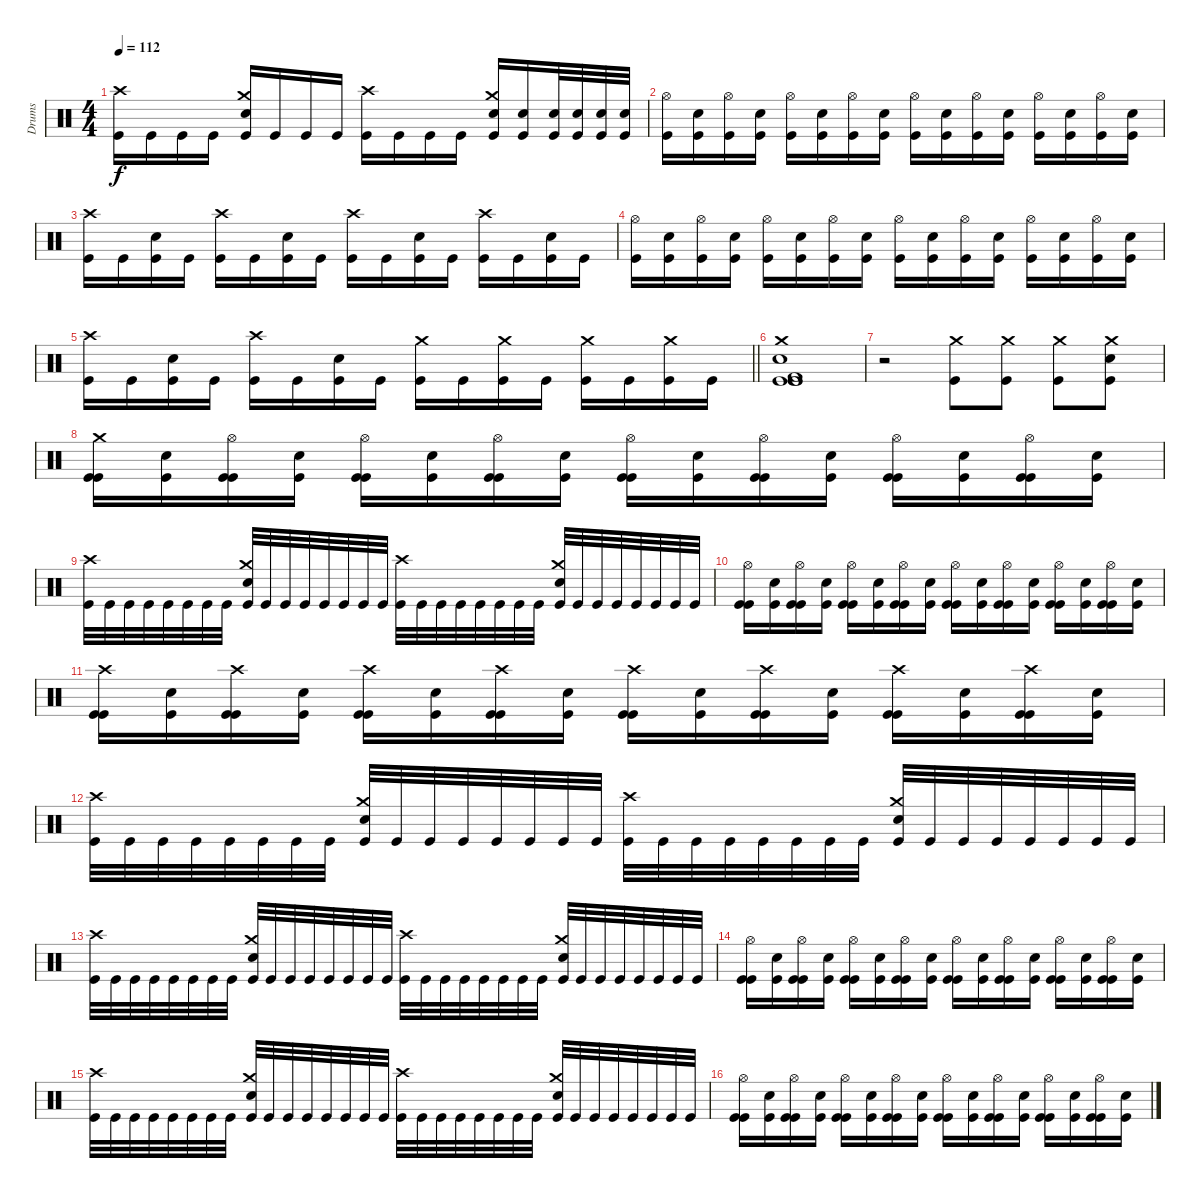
\track ("Drums" "Drums") {instrument percussion}
\staff
\articulation defaults
\ts (4 4)
\tempo 112
\clef neutral
\ks c
("Crash high (hit)" "Kick (hit)").16{dy f} "Kick (hit)".16 "Kick (hit)".16 "Kick (hit)".16 ("Crash medium (hit)" "Electric Snare (hit)" "Kick (hit)").16 "Kick (hit)".16 "Kick (hit)".16 "Kick (hit)".16 ("Crash high (hit)" "Kick (hit)").16 "Kick (hit)".16 "Kick (hit)".16 "Kick (hit)".16 ("Crash medium (hit)" "Electric Snare (hit)" "Kick (hit)").16 ("Electric Snare (hit)" "Kick (hit)").16 ("Electric Snare (hit)" "Kick (hit)").32 ("Electric Snare (hit)" "Kick (hit)").32 ("Electric Snare (hit)" "Kick (hit)").32 ("Electric Snare (hit)" "Kick (hit)").32 |
("Hi-Hat (open)" "Kick (hit)").16 ("Electric Snare (hit)" "Kick (hit)").16 ("Hi-Hat (open)" "Kick (hit)").16 ("Electric Snare (hit)" "Kick (hit)").16 ("Hi-Hat (open)" "Kick (hit)").16 ("Electric Snare (hit)" "Kick (hit)").16 ("Hi-Hat (open)" "Kick (hit)").16 ("Electric Snare (hit)" "Kick (hit)").16 ("Hi-Hat (open)" "Kick (hit)").16 ("Electric Snare (hit)" "Kick (hit)").16 ("Hi-Hat (open)" "Kick (hit)").16 ("Electric Snare (hit)" "Kick (hit)").16 ("Hi-Hat (open)" "Kick (hit)").16 ("Electric Snare (hit)" "Kick (hit)").16 ("Hi-Hat (open)" "Kick (hit)").16 ("Electric Snare (hit)" "Kick (hit)").16 |
("Crash high (hit)" "Kick (hit)").16 "Kick (hit)".16 ("Electric Snare (hit)" "Kick (hit)").16 "Kick (hit)".16 ("Crash high (hit)" "Kick (hit)").16 "Kick (hit)".16 ("Electric Snare (hit)" "Kick (hit)").16 "Kick (hit)".16 ("Crash high (hit)" "Kick (hit)").16 "Kick (hit)".16 ("Electric Snare (hit)" "Kick (hit)").16 "Kick (hit)".16 ("Crash high (hit)" "Kick (hit)").16 "Kick (hit)".16 ("Electric Snare (hit)" "Kick (hit)").16 "Kick (hit)".16 |
("Hi-Hat (open)" "Kick (hit)").16 ("Electric Snare (hit)" "Kick (hit)").16 ("Hi-Hat (open)" "Kick (hit)").16 ("Electric Snare (hit)" "Kick (hit)").16 ("Hi-Hat (open)" "Kick (hit)").16 ("Electric Snare (hit)" "Kick (hit)").16 ("Hi-Hat (open)" "Kick (hit)").16 ("Electric Snare (hit)" "Kick (hit)").16 ("Hi-Hat (open)" "Kick (hit)").16 ("Electric Snare (hit)" "Kick (hit)").16 ("Hi-Hat (open)" "Kick (hit)").16 ("Electric Snare (hit)" "Kick (hit)").16 ("Hi-Hat (open)" "Kick (hit)").16 ("Electric Snare (hit)" "Kick (hit)").16 ("Hi-Hat (open)" "Kick (hit)").16 ("Electric Snare (hit)" "Kick (hit)").16 |
\barLineRight lightlight
("Crash high (hit)" "Kick (hit)").16 "Kick (hit)".16 ("Electric Snare (hit)" "Kick (hit)").16 "Kick (hit)".16 ("Crash high (hit)" "Kick (hit)").16 "Kick (hit)".16 ("Electric Snare (hit)" "Kick (hit)").16 "Kick (hit)".16 ("Crash medium (hit)" "Kick (hit)").16 "Kick (hit)".16 ("Crash medium (hit)" "Kick (hit)").16 "Kick (hit)".16 ("Crash medium (hit)" "Kick (hit)").16 "Kick (hit)".16 ("Crash medium (hit)" "Kick (hit)").16 "Kick (hit)".16 |
\section ("" "")
("Kick (hit)" "Kick (hit)" "Crash medium (hit)" "Kick (hit) 2" "Electric Snare (hit)" "Kick (hit)").1 |
r.2 ("Crash medium (hit)" "Kick (hit)").8 ("Crash medium (hit)" "Kick (hit)").8 ("Crash medium (hit)" "Kick (hit)").8 ("Crash medium (hit)" "Electric Snare (hit)" "Kick (hit)").8 |
("Crash medium (hit)" "Kick (hit)" "Kick (hit)").16 ("Electric Snare (hit)" "Kick (hit)").16 ("Hi-Hat (open)" "Kick (hit)" "Kick (hit)").16 ("Electric Snare (hit)" "Kick (hit)").16 ("Hi-Hat (open)" "Kick (hit)" "Kick (hit)").16 ("Electric Snare (hit)" "Kick (hit)").16 ("Hi-Hat (open)" "Kick (hit)" "Kick (hit)").16 ("Electric Snare (hit)" "Kick (hit)").16 ("Hi-Hat (open)" "Kick (hit)" "Kick (hit)").16 ("Electric Snare (hit)" "Kick (hit)").16 ("Hi-Hat (open)" "Kick (hit)" "Kick (hit)").16 ("Electric Snare (hit)" "Kick (hit)").16 ("Hi-Hat (open)" "Kick (hit)" "Kick (hit)").16 ("Electric Snare (hit)" "Kick (hit)").16 ("Hi-Hat (open)" "Kick (hit)" "Kick (hit)").16 ("Electric Snare (hit)" "Kick (hit)").16 |
("Crash high (hit)" "Kick (hit)").32 "Kick (hit)".32 "Kick (hit)".32 "Kick (hit)".32 "Kick (hit)".32 "Kick (hit)".32 "Kick (hit)".32 "Kick (hit)".32 ("Crash medium (hit)" "Electric Snare (hit)" "Kick (hit)").32 "Kick (hit)".32 "Kick (hit)".32 "Kick (hit)".32 "Kick (hit)".32 "Kick (hit)".32 "Kick (hit)".32 "Kick (hit)".32 ("Crash high (hit)" "Kick (hit)").32 "Kick (hit)".32 "Kick (hit)".32 "Kick (hit)".32 "Kick (hit)".32 "Kick (hit)".32 "Kick (hit)".32 "Kick (hit)".32 ("Crash medium (hit)" "Electric Snare (hit)" "Kick (hit)").32 "Kick (hit)".32 "Kick (hit)".32 "Kick (hit)".32 "Kick (hit)".32 "Kick (hit)".32 "Kick (hit)".32 "Kick (hit)".32 |
("Hi-Hat (open)" "Kick (hit)" "Kick (hit)").16 ("Electric Snare (hit)" "Kick (hit)").16 ("Hi-Hat (open)" "Kick (hit)" "Kick (hit)").16 ("Electric Snare (hit)" "Kick (hit)").16 ("Hi-Hat (open)" "Kick (hit)" "Kick (hit)").16 ("Electric Snare (hit)" "Kick (hit)").16 ("Hi-Hat (open)" "Kick (hit)" "Kick (hit)").16 ("Electric Snare (hit)" "Kick (hit)").16 ("Hi-Hat (open)" "Kick (hit)" "Kick (hit)").16 ("Electric Snare (hit)" "Kick (hit)").16 ("Hi-Hat (open)" "Kick (hit)" "Kick (hit)").16 ("Electric Snare (hit)" "Kick (hit)").16 ("Hi-Hat (open)" "Kick (hit)" "Kick (hit)").16 ("Electric Snare (hit)" "Kick (hit)").16 ("Hi-Hat (open)" "Kick (hit)" "Kick (hit)").16 ("Electric Snare (hit)" "Kick (hit)").16 |
("Crash high (hit)" "Kick (hit)" "Kick (hit)").16 ("Electric Snare (hit)" "Kick (hit)").16 ("Crash high (hit)" "Kick (hit)" "Kick (hit)").16 ("Electric Snare (hit)" "Kick (hit)").16 ("Crash high (hit)" "Kick (hit)" "Kick (hit)").16 ("Electric Snare (hit)" "Kick (hit)").16 ("Crash high (hit)" "Kick (hit)" "Kick (hit)").16 ("Electric Snare (hit)" "Kick (hit)").16 ("Crash high (hit)" "Kick (hit)" "Kick (hit)").16 ("Electric Snare (hit)" "Kick (hit)").16 ("Crash high (hit)" "Kick (hit)" "Kick (hit)").16 ("Electric Snare (hit)" "Kick (hit)").16 ("Crash high (hit)" "Kick (hit)" "Kick (hit)").16 ("Electric Snare (hit)" "Kick (hit)").16 ("Crash high (hit)" "Kick (hit)" "Kick (hit)").16 ("Electric Snare (hit)" "Kick (hit)").16 |
("Crash high (hit)" "Kick (hit)").32 "Kick (hit)".32 "Kick (hit)".32 "Kick (hit)".32 "Kick (hit)".32 "Kick (hit)".32 "Kick (hit)".32 "Kick (hit)".32 ("Crash medium (hit)" "Electric Snare (hit)" "Kick (hit)").32 "Kick (hit)".32 "Kick (hit)".32 "Kick (hit)".32 "Kick (hit)".32 "Kick (hit)".32 "Kick (hit)".32 "Kick (hit)".32 ("Crash high (hit)" "Kick (hit)").32 "Kick (hit)".32 "Kick (hit)".32 "Kick (hit)".32 "Kick (hit)".32 "Kick (hit)".32 "Kick (hit)".32 "Kick (hit)".32 ("Crash medium (hit)" "Electric Snare (hit)" "Kick (hit)").32 "Kick (hit)".32 "Kick (hit)".32 "Kick (hit)".32 "Kick (hit)".32 "Kick (hit)".32 "Kick (hit)".32 "Kick (hit)".32 |
("Crash high (hit)" "Kick (hit)").32 "Kick (hit)".32 "Kick (hit)".32 "Kick (hit)".32 "Kick (hit)".32 "Kick (hit)".32 "Kick (hit)".32 "Kick (hit)".32 ("Crash medium (hit)" "Electric Snare (hit)" "Kick (hit)").32 "Kick (hit)".32 "Kick (hit)".32 "Kick (hit)".32 "Kick (hit)".32 "Kick (hit)".32 "Kick (hit)".32 "Kick (hit)".32 ("Crash high (hit)" "Kick (hit)").32 "Kick (hit)".32 "Kick (hit)".32 "Kick (hit)".32 "Kick (hit)".32 "Kick (hit)".32 "Kick (hit)".32 "Kick (hit)".32 ("Crash medium (hit)" "Electric Snare (hit)" "Kick (hit)").32 "Kick (hit)".32 "Kick (hit)".32 "Kick (hit)".32 "Kick (hit)".32 "Kick (hit)".32 "Kick (hit)".32 "Kick (hit)".32 |
("Hi-Hat (open)" "Kick (hit)" "Kick (hit)").16 ("Electric Snare (hit)" "Kick (hit)").16 ("Hi-Hat (open)" "Kick (hit)" "Kick (hit)").16 ("Electric Snare (hit)" "Kick (hit)").16 ("Hi-Hat (open)" "Kick (hit)" "Kick (hit)").16 ("Electric Snare (hit)" "Kick (hit)").16 ("Hi-Hat (open)" "Kick (hit)" "Kick (hit)").16 ("Electric Snare (hit)" "Kick (hit)").16 ("Hi-Hat (open)" "Kick (hit)" "Kick (hit)").16 ("Electric Snare (hit)" "Kick (hit)").16 ("Hi-Hat (open)" "Kick (hit)" "Kick (hit)").16 ("Electric Snare (hit)" "Kick (hit)").16 ("Hi-Hat (open)" "Kick (hit)" "Kick (hit)").16 ("Electric Snare (hit)" "Kick (hit)").16 ("Hi-Hat (open)" "Kick (hit)" "Kick (hit)").16 ("Electric Snare (hit)" "Kick (hit)").16 |
("Crash high (hit)" "Kick (hit)").32 "Kick (hit)".32 "Kick (hit)".32 "Kick (hit)".32 "Kick (hit)".32 "Kick (hit)".32 "Kick (hit)".32 "Kick (hit)".32 ("Crash medium (hit)" "Electric Snare (hit)" "Kick (hit)").32 "Kick (hit)".32 "Kick (hit)".32 "Kick (hit)".32 "Kick (hit)".32 "Kick (hit)".32 "Kick (hit)".32 "Kick (hit)".32 ("Crash high (hit)" "Kick (hit)").32 "Kick (hit)".32 "Kick (hit)".32 "Kick (hit)".32 "Kick (hit)".32 "Kick (hit)".32 "Kick (hit)".32 "Kick (hit)".32 ("Crash medium (hit)" "Electric Snare (hit)" "Kick (hit)").32 "Kick (hit)".32 "Kick (hit)".32 "Kick (hit)".32 "Kick (hit)".32 "Kick (hit)".32 "Kick (hit)".32 "Kick (hit)".32 |
("Hi-Hat (open)" "Kick (hit)" "Kick (hit)").16 ("Electric Snare (hit)" "Kick (hit)").16 ("Hi-Hat (open)" "Kick (hit)" "Kick (hit)").16 ("Electric Snare (hit)" "Kick (hit)").16 ("Hi-Hat (open)" "Kick (hit)" "Kick (hit)").16 ("Electric Snare (hit)" "Kick (hit)").16 ("Hi-Hat (open)" "Kick (hit)" "Kick (hit)").16 ("Electric Snare (hit)" "Kick (hit)").16 ("Hi-Hat (open)" "Kick (hit)" "Kick (hit)").16 ("Electric Snare (hit)" "Kick (hit)").16 ("Hi-Hat (open)" "Kick (hit)" "Kick (hit)").16 ("Electric Snare (hit)" "Kick (hit)").16 ("Hi-Hat (open)" "Kick (hit)" "Kick (hit)").16 ("Electric Snare (hit)" "Kick (hit)").16 ("Hi-Hat (open)" "Kick (hit)" "Kick (hit)").16 ("Electric Snare (hit)" "Kick (hit)").16
